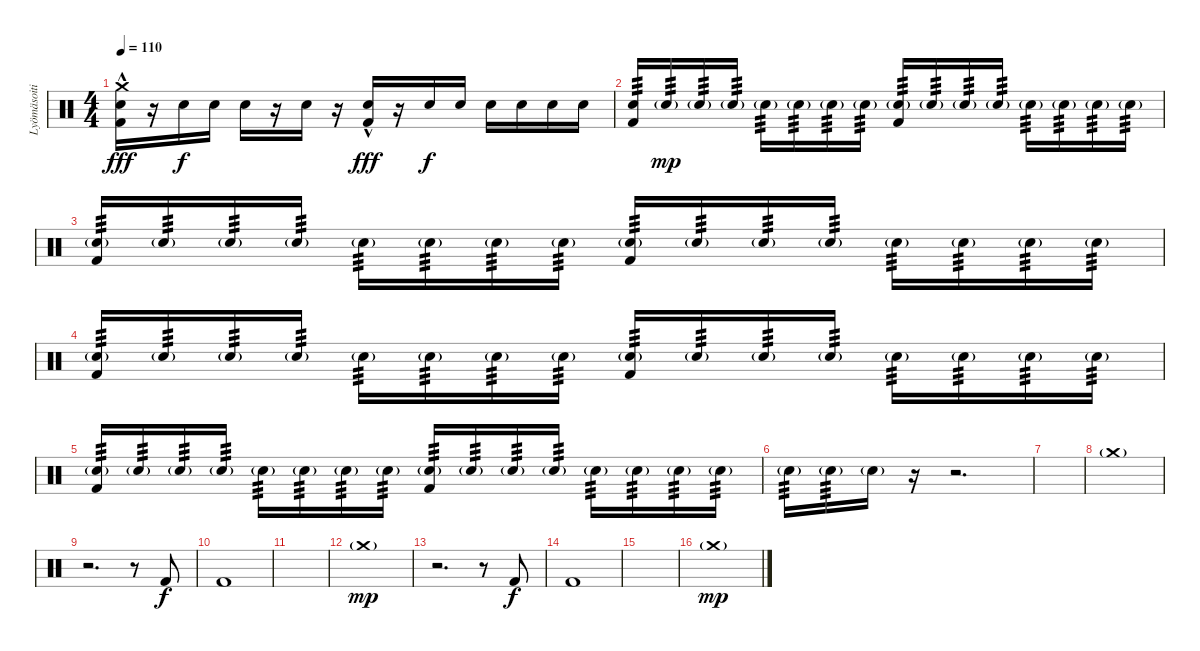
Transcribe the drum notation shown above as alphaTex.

\track ("Lyömäsoitin" "Lyömäsoiti") {instrument percussion}
\staff {score}
\articulation defaults
\ts (4 4)
\tempo 110
\clef neutral
\ks c
("Crash medium (hit)" "Snare (hit) 2"{hac} "Kick (hit) 2").16{dy fff} r.16 "Snare (hit) 2".16{dy f} "Snare (hit) 2".16 "Snare (hit) 2".16 r.16 "Snare (hit) 2".16 r.16 ("Snare (hit) 2"{hac} "Kick (hit) 2").16{dy fff} r.16 "Snare (hit) 2".16{dy f} "Snare (hit) 2".16 "Snare (hit) 2".16 "Snare (hit) 2".16 "Snare (hit) 2".16 "Snare (hit) 2".16 |
("Snare (hit) 2" "Kick (hit) 2").16{tp 3} "Snare (hit) 2"{g}.16{tp 3 dy mp volume 16} "Snare (hit) 2"{g}.16{tp 3} "Snare (hit) 2"{g}.16{tp 3} "Snare (hit) 2"{g}.16{tp 3} "Snare (hit) 2"{g}.16{tp 3} "Snare (hit) 2"{g}.16{tp 3} "Snare (hit) 2"{g}.16{tp 3} ("Snare (hit) 2"{g} "Kick (hit) 2").16{tp 3} "Snare (hit) 2"{g}.16{tp 3} "Snare (hit) 2"{g}.16{tp 3} "Snare (hit) 2"{g}.16{tp 3} "Snare (hit) 2"{g}.16{tp 3} "Snare (hit) 2"{g}.16{tp 3} "Snare (hit) 2"{g}.16{tp 3} "Snare (hit) 2"{g}.16{tp 3} |
("Snare (hit) 2"{g} "Kick (hit) 2").16{tp 3 volume 16} "Snare (hit) 2"{g}.16{tp 3} "Snare (hit) 2"{g}.16{tp 3} "Snare (hit) 2"{g}.16{tp 3} "Snare (hit) 2"{g}.16{tp 3} "Snare (hit) 2"{g}.16{tp 3} "Snare (hit) 2"{g}.16{tp 3} "Snare (hit) 2"{g}.16{tp 3} ("Snare (hit) 2"{g} "Kick (hit) 2").16{tp 3} "Snare (hit) 2"{g}.16{tp 3} "Snare (hit) 2"{g}.16{tp 3} "Snare (hit) 2"{g}.16{tp 3} "Snare (hit) 2"{g}.16{tp 3} "Snare (hit) 2"{g}.16{tp 3} "Snare (hit) 2"{g}.16{tp 3} "Snare (hit) 2"{g}.16{tp 3} |
("Snare (hit) 2"{g} "Kick (hit) 2").16{tp 3} "Snare (hit) 2"{g}.16{tp 3} "Snare (hit) 2"{g}.16{tp 3} "Snare (hit) 2"{g}.16{tp 3} "Snare (hit) 2"{g}.16{tp 3} "Snare (hit) 2"{g}.16{tp 3} "Snare (hit) 2"{g}.16{tp 3} "Snare (hit) 2"{g}.16{tp 3} ("Snare (hit) 2"{g} "Kick (hit) 2").16{tp 3} "Snare (hit) 2"{g}.16{tp 3} "Snare (hit) 2"{g}.16{tp 3} "Snare (hit) 2"{g}.16{tp 3} "Snare (hit) 2"{g}.16{tp 3} "Snare (hit) 2"{g}.16{tp 3} "Snare (hit) 2"{g}.16{tp 3} "Snare (hit) 2"{g}.16{tp 3} |
("Snare (hit) 2"{g} "Kick (hit) 2").16{tp 3} "Snare (hit) 2"{g}.16{tp 3} "Snare (hit) 2"{g}.16{tp 3} "Snare (hit) 2"{g}.16{tp 3} "Snare (hit) 2"{g}.16{tp 3} "Snare (hit) 2"{g}.16{tp 3} "Snare (hit) 2"{g}.16{tp 3} "Snare (hit) 2"{g}.16{tp 3} ("Snare (hit) 2"{g} "Kick (hit) 2").16{tp 3} "Snare (hit) 2"{g}.16{tp 3} "Snare (hit) 2"{g}.16{tp 3} "Snare (hit) 2"{g}.16{tp 3} "Snare (hit) 2"{g}.16{tp 3} "Snare (hit) 2"{g}.16{tp 3} "Snare (hit) 2"{g}.16{tp 3} "Snare (hit) 2"{g}.16{tp 3} |
"Snare (hit) 2"{g}.16{tp 3} "Snare (hit) 2"{g}.16{tp 3} "Snare (hit) 2"{g}.16 r.16 r.2{d} |
|
"Crash medium (hit)"{g}.1 |
r.2{d} r.8 "Kick (hit) 2".8{dy f} |
"Kick (hit) 2".1 |
|
"Crash medium (hit)"{g}.1{dy mp} |
r.2{d} r.8 "Kick (hit) 2".8{dy f} |
"Kick (hit) 2".1 |
|
"Crash medium (hit)"{g}.1{dy mp}
